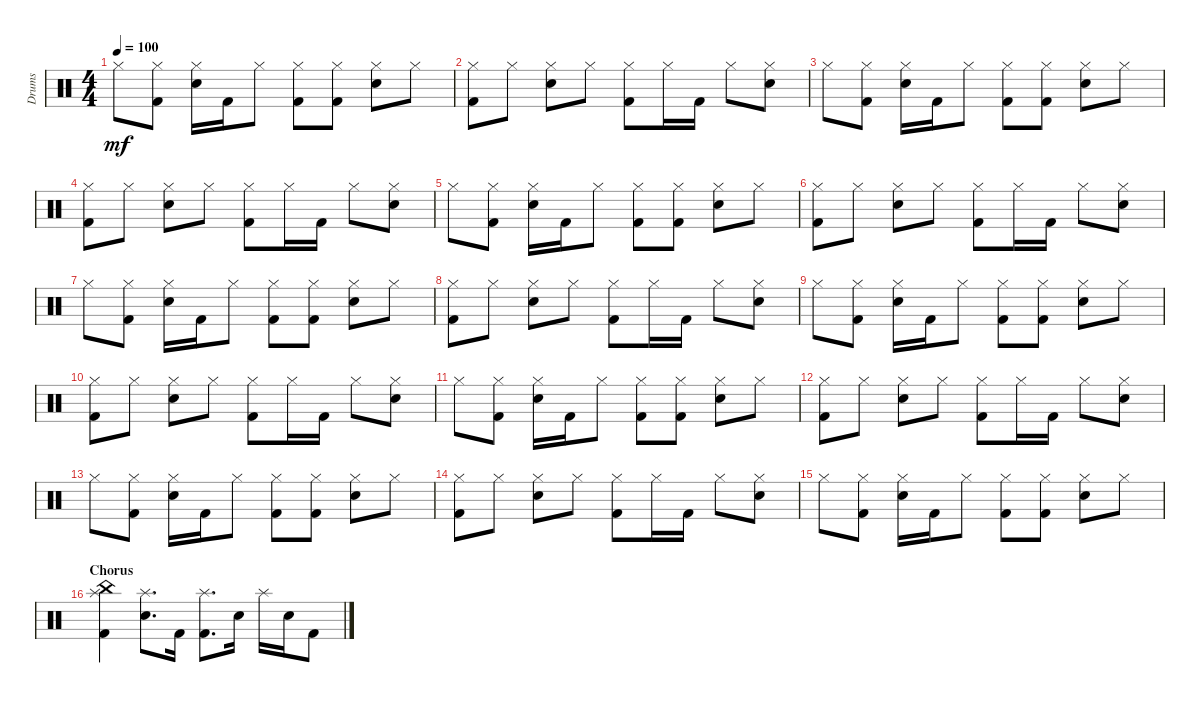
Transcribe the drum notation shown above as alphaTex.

\defaultSystemsLayout 4
\bracketExtendMode groupsimilarinstruments
\otherSystemsTrackNameOrientation horizontal
\track ("Prakarsh" "Drums") {instrument percussion}
\staff {score}
\articulation defaults
\ts (4 4)
\tempo 100
\clef neutral
\ks c "Hi-Hat (closed)".8{dy mf beam Down}
("Hi-Hat (closed)" "Kick (hit) 2").8{beam Down} ("Hi-Hat (closed)" "Snare (hit) 2").16{beam Down} "Kick (hit) 2".16{beam Down} "Hi-Hat (closed)".8{beam Down} ("Hi-Hat (closed)" "Kick (hit) 2").8{beam Down} ("Hi-Hat (closed)" "Kick (hit) 2").8{beam Down} ("Hi-Hat (closed)" "Snare (hit) 2").8{beam Down} "Hi-Hat (closed)".8{beam Down} |
("Hi-Hat (closed)" "Kick (hit) 2").8{beam Down} "Hi-Hat (closed)".8{beam Down} ("Hi-Hat (closed)" "Snare (hit) 2").8{beam Down} "Hi-Hat (closed)".8{beam Down} ("Hi-Hat (closed)" "Kick (hit) 2").8{beam Down} "Hi-Hat (closed)".16{beam Down} "Kick (hit) 2".16{beam Down} "Hi-Hat (closed)".8{beam Down} ("Hi-Hat (closed)" "Snare (hit) 2").8{beam Down} |
"Hi-Hat (closed)".8{beam Down} ("Hi-Hat (closed)" "Kick (hit) 2").8{beam Down} ("Hi-Hat (closed)" "Snare (hit) 2").16{beam Down} "Kick (hit) 2".16{beam Down} "Hi-Hat (closed)".8{beam Down} ("Hi-Hat (closed)" "Kick (hit) 2").8{beam Down} ("Hi-Hat (closed)" "Kick (hit) 2").8{beam Down} ("Hi-Hat (closed)" "Snare (hit) 2").8{beam Down} "Hi-Hat (closed)".8{beam Down} |
("Hi-Hat (closed)" "Kick (hit) 2").8{beam Down} "Hi-Hat (closed)".8{beam Down} ("Hi-Hat (closed)" "Snare (hit) 2").8{beam Down} "Hi-Hat (closed)".8{beam Down} ("Hi-Hat (closed)" "Kick (hit) 2").8{beam Down} "Hi-Hat (closed)".16{beam Down} "Kick (hit) 2".16{beam Down} "Hi-Hat (closed)".8{beam Down} ("Hi-Hat (closed)" "Snare (hit) 2").8{beam Down} |
"Hi-Hat (closed)".8{beam Down} ("Hi-Hat (closed)" "Kick (hit) 2").8{beam Down} ("Hi-Hat (closed)" "Snare (hit) 2").16{beam Down} "Kick (hit) 2".16{beam Down} "Hi-Hat (closed)".8{beam Down} ("Hi-Hat (closed)" "Kick (hit) 2").8{beam Down} ("Hi-Hat (closed)" "Kick (hit) 2").8{beam Down} ("Hi-Hat (closed)" "Snare (hit) 2").8{beam Down} "Hi-Hat (closed)".8{beam Down} |
("Hi-Hat (closed)" "Kick (hit) 2").8{beam Down} "Hi-Hat (closed)".8{beam Down} ("Hi-Hat (closed)" "Snare (hit) 2").8{beam Down} "Hi-Hat (closed)".8{beam Down} ("Hi-Hat (closed)" "Kick (hit) 2").8{beam Down} "Hi-Hat (closed)".16{beam Down} "Kick (hit) 2".16{beam Down} "Hi-Hat (closed)".8{beam Down} ("Hi-Hat (closed)" "Snare (hit) 2").8{beam Down} |
"Hi-Hat (closed)".8{beam Down} ("Hi-Hat (closed)" "Kick (hit) 2").8{beam Down} ("Hi-Hat (closed)" "Snare (hit) 2").16{beam Down} "Kick (hit) 2".16{beam Down} "Hi-Hat (closed)".8{beam Down} ("Hi-Hat (closed)" "Kick (hit) 2").8{beam Down} ("Hi-Hat (closed)" "Kick (hit) 2").8{beam Down} ("Hi-Hat (closed)" "Snare (hit) 2").8{beam Down} "Hi-Hat (closed)".8{beam Down} |
("Hi-Hat (closed)" "Kick (hit) 2").8{beam Down} "Hi-Hat (closed)".8{beam Down} ("Hi-Hat (closed)" "Snare (hit) 2").8{beam Down} "Hi-Hat (closed)".8{beam Down} ("Hi-Hat (closed)" "Kick (hit) 2").8{beam Down} "Hi-Hat (closed)".16{beam Down} "Kick (hit) 2".16{beam Down} "Hi-Hat (closed)".8{beam Down} ("Hi-Hat (closed)" "Snare (hit) 2").8{beam Down} |
"Hi-Hat (closed)".8{beam Down} ("Hi-Hat (closed)" "Kick (hit) 2").8{beam Down} ("Hi-Hat (closed)" "Snare (hit) 2").16{beam Down} "Kick (hit) 2".16{beam Down} "Hi-Hat (closed)".8{beam Down} ("Hi-Hat (closed)" "Kick (hit) 2").8{beam Down} ("Hi-Hat (closed)" "Kick (hit) 2").8{beam Down} ("Hi-Hat (closed)" "Snare (hit) 2").8{beam Down} "Hi-Hat (closed)".8{beam Down} |
("Hi-Hat (closed)" "Kick (hit) 2").8{beam Down} "Hi-Hat (closed)".8{beam Down} ("Hi-Hat (closed)" "Snare (hit) 2").8{beam Down} "Hi-Hat (closed)".8{beam Down} ("Hi-Hat (closed)" "Kick (hit) 2").8{beam Down} "Hi-Hat (closed)".16{beam Down} "Kick (hit) 2".16{beam Down} "Hi-Hat (closed)".8{beam Down} ("Hi-Hat (closed)" "Snare (hit) 2").8{beam Down} |
"Hi-Hat (closed)".8{beam Down} ("Hi-Hat (closed)" "Kick (hit) 2").8{beam Down} ("Hi-Hat (closed)" "Snare (hit) 2").16{beam Down} "Kick (hit) 2".16{beam Down} "Hi-Hat (closed)".8{beam Down} ("Hi-Hat (closed)" "Kick (hit) 2").8{beam Down} ("Hi-Hat (closed)" "Kick (hit) 2").8{beam Down} ("Hi-Hat (closed)" "Snare (hit) 2").8{beam Down} "Hi-Hat (closed)".8{beam Down} |
("Hi-Hat (closed)" "Kick (hit) 2").8{beam Down} "Hi-Hat (closed)".8{beam Down} ("Hi-Hat (closed)" "Snare (hit) 2").8{beam Down} "Hi-Hat (closed)".8{beam Down} ("Hi-Hat (closed)" "Kick (hit) 2").8{beam Down} "Hi-Hat (closed)".16{beam Down} "Kick (hit) 2".16{beam Down} "Hi-Hat (closed)".8{beam Down} ("Hi-Hat (closed)" "Snare (hit) 2").8{beam Down} |
"Hi-Hat (closed)".8{beam Down} ("Hi-Hat (closed)" "Kick (hit) 2").8{beam Down} ("Hi-Hat (closed)" "Snare (hit) 2").16{beam Down} "Kick (hit) 2".16{beam Down} "Hi-Hat (closed)".8{beam Down} ("Hi-Hat (closed)" "Kick (hit) 2").8{beam Down} ("Hi-Hat (closed)" "Kick (hit) 2").8{beam Down} ("Hi-Hat (closed)" "Snare (hit) 2").8{beam Down} "Hi-Hat (closed)".8{beam Down} |
("Hi-Hat (closed)" "Kick (hit) 2").8{beam Down} "Hi-Hat (closed)".8{beam Down} ("Hi-Hat (closed)" "Snare (hit) 2").8{beam Down} "Hi-Hat (closed)".8{beam Down} ("Hi-Hat (closed)" "Kick (hit) 2").8{beam Down} "Hi-Hat (closed)".16{beam Down} "Kick (hit) 2".16{beam Down} "Hi-Hat (closed)".8{beam Down} ("Hi-Hat (closed)" "Snare (hit) 2").8{beam Down} |
"Hi-Hat (closed)".8{beam Down} ("Hi-Hat (closed)" "Kick (hit) 2").8{beam Down} ("Hi-Hat (closed)" "Snare (hit) 2").16{beam Down} "Kick (hit) 2".16{beam Down} "Hi-Hat (closed)".8{beam Down} ("Hi-Hat (closed)" "Kick (hit) 2").8{beam Down} ("Hi-Hat (closed)" "Kick (hit) 2").8{beam Down} ("Hi-Hat (closed)" "Snare (hit) 2").8{beam Down} "Hi-Hat (closed)".8{beam Down} |
\section ("" "Chorus")
("Kick (hit) 2" "China (hit)" "Splash (hit)").4{beam Down} ("Snare (hit) 2" "Splash (hit)").8{d beam Down} "Kick (hit) 2".16{beam Down} ("Kick (hit) 2" "Splash (hit)").8{d beam Down} "Snare (hit) 2".16{beam Down} "Splash (hit)".16{beam Down} "Snare (hit) 2".16{beam Down} "Kick (hit) 2".8{beam Down}
